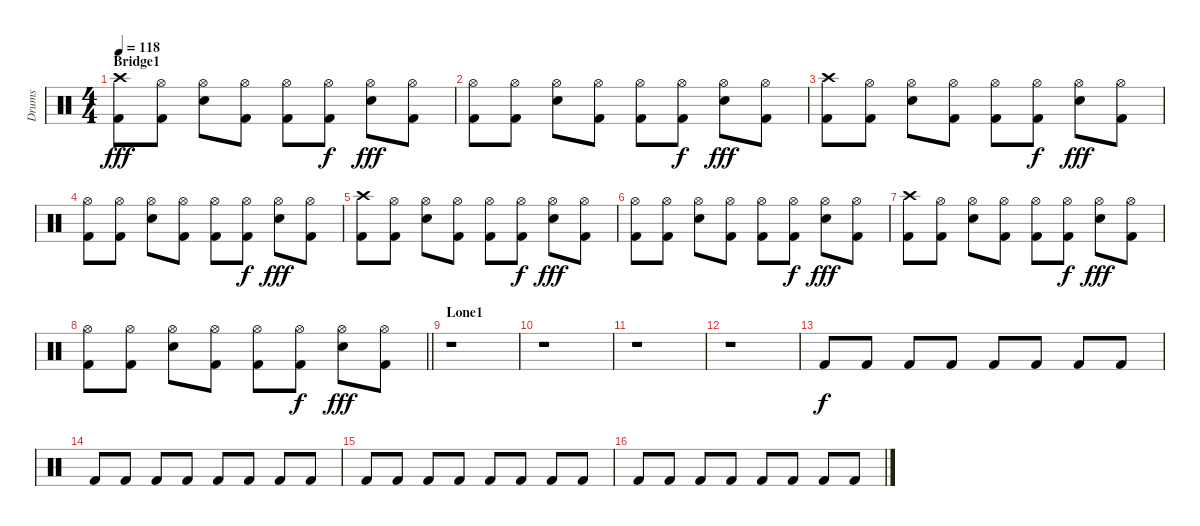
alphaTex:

\track ("Drums" "Drums") {instrument percussion}
\staff {score}
\articulation defaults
\ts (4 4)
\section ("" "Bridge1")
\tempo 118
\clef neutral
\ks c
("Crash high (hit)" "Kick (hit) 2").8{dy fff} ("Hi-Hat (open)" "Kick (hit) 2").8 ("Hi-Hat (open)" "Electric Snare (hit)").8 ("Hi-Hat (open)" "Kick (hit) 2").8 ("Hi-Hat (open)" "Kick (hit) 2").8 ("Hi-Hat (open)" "Kick (hit) 2").8{dy f} ("Hi-Hat (open)" "Electric Snare (hit)").8{dy fff} ("Hi-Hat (open)" "Kick (hit) 2").8 |
("Hi-Hat (open)" "Kick (hit) 2").8 ("Hi-Hat (open)" "Kick (hit) 2").8 ("Hi-Hat (open)" "Electric Snare (hit)").8 ("Hi-Hat (open)" "Kick (hit) 2").8 ("Hi-Hat (open)" "Kick (hit) 2").8 ("Hi-Hat (open)" "Kick (hit) 2").8{dy f} ("Hi-Hat (open)" "Electric Snare (hit)").8{dy fff} ("Hi-Hat (open)" "Kick (hit) 2").8 |
("Crash high (hit)" "Kick (hit) 2").8 ("Hi-Hat (open)" "Kick (hit) 2").8 ("Hi-Hat (open)" "Electric Snare (hit)").8 ("Hi-Hat (open)" "Kick (hit) 2").8 ("Hi-Hat (open)" "Kick (hit) 2").8 ("Hi-Hat (open)" "Kick (hit) 2").8{dy f} ("Hi-Hat (open)" "Electric Snare (hit)").8{dy fff} ("Hi-Hat (open)" "Kick (hit) 2").8 |
("Hi-Hat (open)" "Kick (hit) 2").8 ("Hi-Hat (open)" "Kick (hit) 2").8 ("Hi-Hat (open)" "Electric Snare (hit)").8 ("Hi-Hat (open)" "Kick (hit) 2").8 ("Hi-Hat (open)" "Kick (hit) 2").8 ("Hi-Hat (open)" "Kick (hit) 2").8{dy f} ("Hi-Hat (open)" "Electric Snare (hit)").8{dy fff} ("Hi-Hat (open)" "Kick (hit) 2").8 |
("Crash high (hit)" "Kick (hit) 2").8 ("Hi-Hat (open)" "Kick (hit) 2").8 ("Hi-Hat (open)" "Electric Snare (hit)").8 ("Hi-Hat (open)" "Kick (hit) 2").8 ("Hi-Hat (open)" "Kick (hit) 2").8 ("Hi-Hat (open)" "Kick (hit) 2").8{dy f} ("Hi-Hat (open)" "Electric Snare (hit)").8{dy fff} ("Hi-Hat (open)" "Kick (hit) 2").8 |
("Hi-Hat (open)" "Kick (hit) 2").8 ("Hi-Hat (open)" "Kick (hit) 2").8 ("Hi-Hat (open)" "Electric Snare (hit)").8 ("Hi-Hat (open)" "Kick (hit) 2").8 ("Hi-Hat (open)" "Kick (hit) 2").8 ("Hi-Hat (open)" "Kick (hit) 2").8{dy f} ("Hi-Hat (open)" "Electric Snare (hit)").8{dy fff} ("Hi-Hat (open)" "Kick (hit) 2").8 |
("Crash high (hit)" "Kick (hit) 2").8 ("Hi-Hat (open)" "Kick (hit) 2").8 ("Hi-Hat (open)" "Electric Snare (hit)").8 ("Hi-Hat (open)" "Kick (hit) 2").8 ("Hi-Hat (open)" "Kick (hit) 2").8 ("Hi-Hat (open)" "Kick (hit) 2").8{dy f} ("Hi-Hat (open)" "Electric Snare (hit)").8{dy fff} ("Hi-Hat (open)" "Kick (hit) 2").8 |
\barLineRight lightlight
("Hi-Hat (open)" "Kick (hit) 2").8 ("Hi-Hat (open)" "Kick (hit) 2").8 ("Hi-Hat (open)" "Electric Snare (hit)").8 ("Hi-Hat (open)" "Kick (hit) 2").8 ("Hi-Hat (open)" "Kick (hit) 2").8 ("Hi-Hat (open)" "Kick (hit) 2").8{dy f} ("Hi-Hat (open)" "Electric Snare (hit)").8{dy fff} ("Hi-Hat (open)" "Kick (hit) 2").8 |
\section ("" "Lone1")
r.1 |
r.1 |
r.1 |
r.1 |
"Kick (hit) 2".8{dy f} "Kick (hit) 2".8 "Kick (hit) 2".8 "Kick (hit) 2".8 "Kick (hit) 2".8 "Kick (hit) 2".8 "Kick (hit) 2".8 "Kick (hit) 2".8 |
"Kick (hit) 2".8 "Kick (hit) 2".8 "Kick (hit) 2".8 "Kick (hit) 2".8 "Kick (hit) 2".8 "Kick (hit) 2".8 "Kick (hit) 2".8 "Kick (hit) 2".8 |
"Kick (hit) 2".8 "Kick (hit) 2".8 "Kick (hit) 2".8 "Kick (hit) 2".8 "Kick (hit) 2".8 "Kick (hit) 2".8 "Kick (hit) 2".8 "Kick (hit) 2".8 |
"Kick (hit) 2".8 "Kick (hit) 2".8 "Kick (hit) 2".8 "Kick (hit) 2".8 "Kick (hit) 2".8 "Kick (hit) 2".8 "Kick (hit) 2".8 "Kick (hit) 2".8
